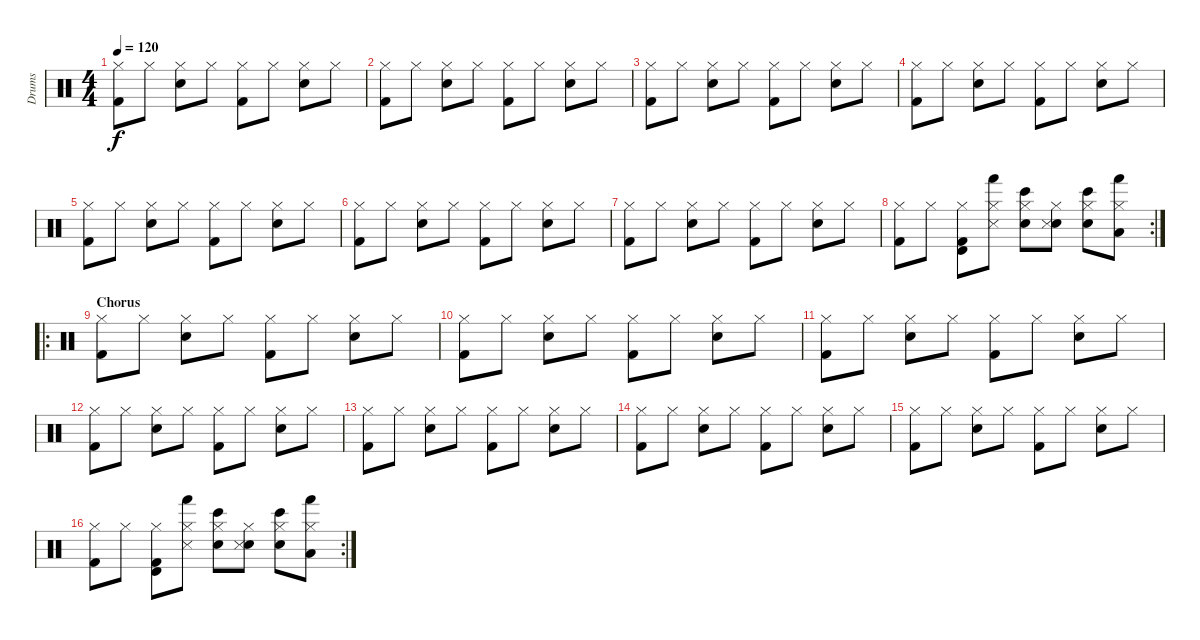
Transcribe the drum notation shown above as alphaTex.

\track ("Drums" "Drums") {instrument percussion}
\staff {score}
\articulation defaults
\ts (4 4)
\tempo 120
\clef neutral
\ks c
("Hi-Hat (closed)" "Kick (hit) 2").8{dy f} "Hi-Hat (closed)".8 ("Hi-Hat (closed)" "Snare (hit) 2").8 "Hi-Hat (closed)".8 ("Hi-Hat (closed)" "Kick (hit) 2").8 "Hi-Hat (closed)".8 ("Hi-Hat (closed)" "Snare (hit) 2").8 "Hi-Hat (closed)".8 |
("Hi-Hat (closed)" "Kick (hit) 2").8 "Hi-Hat (closed)".8 ("Hi-Hat (closed)" "Snare (hit) 2").8 "Hi-Hat (closed)".8 ("Hi-Hat (closed)" "Kick (hit) 2").8 "Hi-Hat (closed)".8 ("Hi-Hat (closed)" "Snare (hit) 2").8 "Hi-Hat (closed)".8 |
("Hi-Hat (closed)" "Kick (hit) 2").8 "Hi-Hat (closed)".8 ("Hi-Hat (closed)" "Snare (hit) 2").8 "Hi-Hat (closed)".8 ("Hi-Hat (closed)" "Kick (hit) 2").8 "Hi-Hat (closed)".8 ("Hi-Hat (closed)" "Snare (hit) 2").8 "Hi-Hat (closed)".8 |
("Hi-Hat (closed)" "Kick (hit) 2").8 "Hi-Hat (closed)".8 ("Hi-Hat (closed)" "Snare (hit) 2").8 "Hi-Hat (closed)".8 ("Hi-Hat (closed)" "Kick (hit) 2").8 "Hi-Hat (closed)".8 ("Hi-Hat (closed)" "Snare (hit) 2").8 "Hi-Hat (closed)".8 |
("Hi-Hat (closed)" "Kick (hit) 2").8 "Hi-Hat (closed)".8 ("Hi-Hat (closed)" "Snare (hit) 2").8 "Hi-Hat (closed)".8 ("Hi-Hat (closed)" "Kick (hit) 2").8 "Hi-Hat (closed)".8 ("Hi-Hat (closed)" "Snare (hit) 2").8 "Hi-Hat (closed)".8 |
("Hi-Hat (closed)" "Kick (hit) 2").8 "Hi-Hat (closed)".8 ("Hi-Hat (closed)" "Snare (hit) 2").8 "Hi-Hat (closed)".8 ("Hi-Hat (closed)" "Kick (hit) 2").8 "Hi-Hat (closed)".8 ("Hi-Hat (closed)" "Snare (hit) 2").8 "Hi-Hat (closed)".8 |
("Hi-Hat (closed)" "Kick (hit) 2").8 "Hi-Hat (closed)".8 ("Hi-Hat (closed)" "Snare (hit) 2").8 "Hi-Hat (closed)".8 ("Hi-Hat (closed)" "Kick (hit) 2").8 "Hi-Hat (closed)".8 ("Hi-Hat (closed)" "Snare (hit) 2").8 "Hi-Hat (closed)".8 |
\rc 2
("Hi-Hat (closed)" "Kick (hit) 2").8 "Hi-Hat (closed)".8 ("Kick (hit) 2" "Timbale high (hit)" "Hi-Hat (closed)").8 ("Snare (side stick) 3" "Hand (hit)" "Hi-Hat (closed)").8 ("Snare (hit) 2" "Bongo High (hit)" "Hi-Hat (closed)").8 ("Hand Clap (hit)" "Snare (side stick) 3" "Hi-Hat (closed)").8 ("Electric Snare (hit)" "Bongo High (hit)" "Hi-Hat (closed)").8 ("Low Floor Tom (hit)" "Hand (hit)" "Hi-Hat (closed)").8 |
\ro
\section ("" "Chorus")
("Hi-Hat (closed)" "Kick (hit) 2").8 "Hi-Hat (closed)".8 ("Hi-Hat (closed)" "Snare (hit) 2").8 "Hi-Hat (closed)".8 ("Hi-Hat (closed)" "Kick (hit) 2").8 "Hi-Hat (closed)".8 ("Hi-Hat (closed)" "Snare (hit) 2").8 "Hi-Hat (closed)".8 |
("Hi-Hat (closed)" "Kick (hit) 2").8 "Hi-Hat (closed)".8 ("Hi-Hat (closed)" "Snare (hit) 2").8 "Hi-Hat (closed)".8 ("Hi-Hat (closed)" "Kick (hit) 2").8 "Hi-Hat (closed)".8 ("Hi-Hat (closed)" "Snare (hit) 2").8 "Hi-Hat (closed)".8 |
("Hi-Hat (closed)" "Kick (hit) 2").8 "Hi-Hat (closed)".8 ("Hi-Hat (closed)" "Snare (hit) 2").8 "Hi-Hat (closed)".8 ("Hi-Hat (closed)" "Kick (hit) 2").8 "Hi-Hat (closed)".8 ("Hi-Hat (closed)" "Snare (hit) 2").8 "Hi-Hat (closed)".8 |
("Hi-Hat (closed)" "Kick (hit) 2").8 "Hi-Hat (closed)".8 ("Hi-Hat (closed)" "Snare (hit) 2").8 "Hi-Hat (closed)".8 ("Hi-Hat (closed)" "Kick (hit) 2").8 "Hi-Hat (closed)".8 ("Hi-Hat (closed)" "Snare (hit) 2").8 "Hi-Hat (closed)".8 |
("Hi-Hat (closed)" "Kick (hit) 2").8 "Hi-Hat (closed)".8 ("Hi-Hat (closed)" "Snare (hit) 2").8 "Hi-Hat (closed)".8 ("Hi-Hat (closed)" "Kick (hit) 2").8 "Hi-Hat (closed)".8 ("Hi-Hat (closed)" "Snare (hit) 2").8 "Hi-Hat (closed)".8 |
("Hi-Hat (closed)" "Kick (hit) 2").8 "Hi-Hat (closed)".8 ("Hi-Hat (closed)" "Snare (hit) 2").8 "Hi-Hat (closed)".8 ("Hi-Hat (closed)" "Kick (hit) 2").8 "Hi-Hat (closed)".8 ("Hi-Hat (closed)" "Snare (hit) 2").8 "Hi-Hat (closed)".8 |
("Hi-Hat (closed)" "Kick (hit) 2").8 "Hi-Hat (closed)".8 ("Hi-Hat (closed)" "Snare (hit) 2").8 "Hi-Hat (closed)".8 ("Hi-Hat (closed)" "Kick (hit) 2").8 "Hi-Hat (closed)".8 ("Hi-Hat (closed)" "Snare (hit) 2").8 "Hi-Hat (closed)".8 |
\rc 2
("Hi-Hat (closed)" "Kick (hit) 2").8 "Hi-Hat (closed)".8 ("Kick (hit) 2" "Timbale high (hit)" "Hi-Hat (closed)").8 ("Snare (side stick) 3" "Hand (hit)" "Hi-Hat (closed)").8 ("Snare (hit) 2" "Bongo High (hit)" "Hi-Hat (closed)").8 ("Hand Clap (hit)" "Snare (side stick) 3" "Hi-Hat (closed)").8 ("Electric Snare (hit)" "Bongo High (hit)" "Hi-Hat (closed)").8 ("Low Floor Tom (hit)" "Hand (hit)" "Hi-Hat (closed)").8
